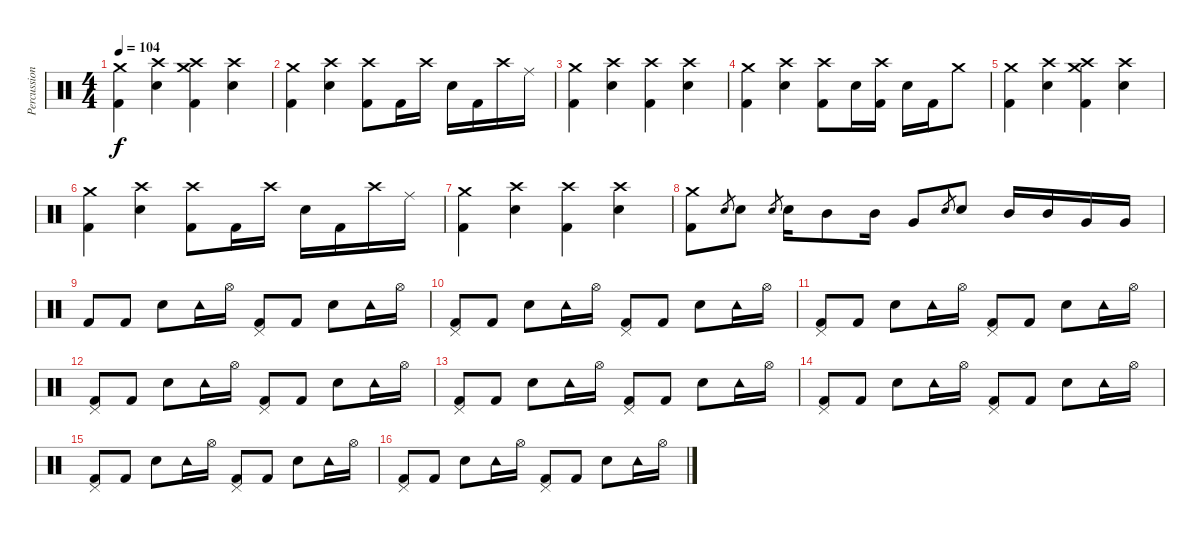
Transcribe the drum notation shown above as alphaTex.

\track ("Percussions" "Percussion") {instrument percussion}
\staff {score}
\articulation defaults
\ts (4 4)
\tempo 104
\clef neutral
\ks c
("Crash medium (hit)" "Kick (hit) 2").4{dy f} ("Crash high (hit)" "Snare (hit) 2").4 ("Crash medium (hit)" "Crash high (hit)" "Kick (hit) 2").4 ("Crash high (hit)" "Snare (hit) 2").4 |
("Crash medium (hit)" "Kick (hit) 2").4 ("Crash high (hit)" "Snare (hit) 2").4 ("Crash high (hit)" "Kick (hit) 2").8 "Kick (hit) 2".16 "Crash high (hit)".16 "Snare (hit) 2".16 "Kick (hit) 2".16 "Crash high (hit)".16 "Ride (middle)".16 |
("Crash medium (hit)" "Kick (hit) 2").4 ("Crash high (hit)" "Snare (hit) 2").4 ("Crash high (hit)" "Kick (hit) 2").4 ("Crash high (hit)" "Snare (hit) 2").4 |
("Crash medium (hit)" "Kick (hit) 2").4 ("Crash high (hit)" "Snare (hit) 2").4 ("Crash high (hit)" "Kick (hit) 2").8 "Snare (hit) 2".16 ("Crash high (hit)" "Kick (hit) 2").16 "Snare (hit) 2".16 "Kick (hit) 2".16 "Crash medium (hit)".8 |
("Crash medium (hit)" "Kick (hit) 2").4 ("Crash high (hit)" "Snare (hit) 2").4 ("Crash medium (hit)" "Crash high (hit)" "Kick (hit) 2").4 ("Crash high (hit)" "Snare (hit) 2").4 |
("Crash medium (hit)" "Kick (hit) 2").4 ("Crash high (hit)" "Snare (hit) 2").4 ("Crash high (hit)" "Kick (hit) 2").8 "Kick (hit) 2".16 "Crash high (hit)".16 "Snare (hit) 2".16 "Kick (hit) 2".16 "Crash high (hit)".16 "Ride (middle)".16 |
("Crash medium (hit)" "Kick (hit) 2").4 ("Crash high (hit)" "Snare (hit) 2").4 ("Crash high (hit)" "Kick (hit) 2").4 ("Crash high (hit)" "Snare (hit) 2").4 |
("Crash medium (hit)" "Kick (hit) 2").8 "Snare (hit) 2".8{gr} "Snare (hit) 2".8 "Snare (hit) 2".8{gr} "Snare (hit) 2".16 "Mid Tom (hit)".8 "Mid Tom (hit)".16 "Very Low Tom (hit)".8 "Snare (hit) 2".8{gr} "Snare (hit) 2".8 "Mid Tom (hit)".16 "Mid Tom (hit)".16 "Very Low Tom (hit)".16 "Very Low Tom (hit)".16 |
"Kick (hit) 2".8 "Kick (hit) 2".8 "Snare (hit) 2".8 "Tambourine (hit)".16 "Hi-Hat (open)".16 ("Pedal Hi-Hat (hit)" "Kick (hit) 2").8 "Kick (hit) 2".8 "Snare (hit) 2".8 "Tambourine (hit)".16 "Hi-Hat (open)".16 |
("Pedal Hi-Hat (hit)" "Kick (hit) 2").8 "Kick (hit) 2".8 "Snare (hit) 2".8 "Tambourine (hit)".16 "Hi-Hat (open)".16 ("Pedal Hi-Hat (hit)" "Kick (hit) 2").8 "Kick (hit) 2".8 "Snare (hit) 2".8 "Tambourine (hit)".16 "Hi-Hat (open)".16 |
("Pedal Hi-Hat (hit)" "Kick (hit) 2").8 "Kick (hit) 2".8 "Snare (hit) 2".8 "Tambourine (hit)".16 "Hi-Hat (open)".16 ("Pedal Hi-Hat (hit)" "Kick (hit) 2").8 "Kick (hit) 2".8 "Snare (hit) 2".8 "Tambourine (hit)".16 "Hi-Hat (open)".16 |
("Pedal Hi-Hat (hit)" "Kick (hit) 2").8 "Kick (hit) 2".8 "Snare (hit) 2".8 "Tambourine (hit)".16 "Hi-Hat (open)".16 ("Pedal Hi-Hat (hit)" "Kick (hit) 2").8 "Kick (hit) 2".8 "Snare (hit) 2".8 "Tambourine (hit)".16 "Hi-Hat (open)".16 |
("Pedal Hi-Hat (hit)" "Kick (hit) 2").8 "Kick (hit) 2".8 "Snare (hit) 2".8 "Tambourine (hit)".16 "Hi-Hat (open)".16 ("Pedal Hi-Hat (hit)" "Kick (hit) 2").8 "Kick (hit) 2".8 "Snare (hit) 2".8 "Tambourine (hit)".16 "Hi-Hat (open)".16 |
("Pedal Hi-Hat (hit)" "Kick (hit) 2").8 "Kick (hit) 2".8 "Snare (hit) 2".8 "Tambourine (hit)".16 "Hi-Hat (open)".16 ("Pedal Hi-Hat (hit)" "Kick (hit) 2").8 "Kick (hit) 2".8 "Snare (hit) 2".8 "Tambourine (hit)".16 "Hi-Hat (open)".16 |
("Pedal Hi-Hat (hit)" "Kick (hit) 2").8 "Kick (hit) 2".8 "Snare (hit) 2".8 "Tambourine (hit)".16 "Hi-Hat (open)".16 ("Pedal Hi-Hat (hit)" "Kick (hit) 2").8 "Kick (hit) 2".8 "Snare (hit) 2".8 "Tambourine (hit)".16 "Hi-Hat (open)".16 |
("Pedal Hi-Hat (hit)" "Kick (hit) 2").8 "Kick (hit) 2".8 "Snare (hit) 2".8 "Tambourine (hit)".16 "Hi-Hat (open)".16 ("Pedal Hi-Hat (hit)" "Kick (hit) 2").8 "Kick (hit) 2".8 "Snare (hit) 2".8 "Tambourine (hit)".16 "Hi-Hat (open)".16
